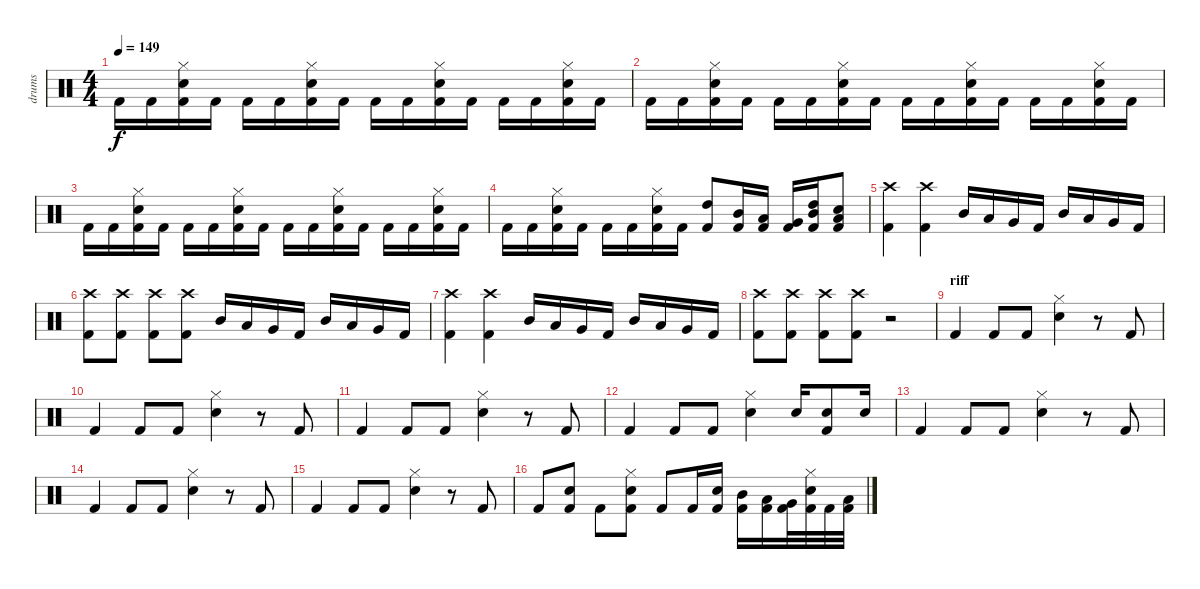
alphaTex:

\track ("drums" "drums") {instrument percussion}
\staff {score}
\articulation defaults
\ts (4 4)
\tempo 149
\clef neutral
\ks c "Kick (hit) 2".16{dy f} "Kick (hit) 2".16
("Kick (hit) 2" "Electric Snare (hit)" "Hi-Hat (closed)").16 "Kick (hit) 2".16 "Kick (hit) 2".16 "Kick (hit) 2".16 ("Kick (hit) 2" "Electric Snare (hit)" "Hi-Hat (closed)").16 "Kick (hit) 2".16 "Kick (hit) 2".16 "Kick (hit) 2".16 ("Kick (hit) 2" "Electric Snare (hit)" "Hi-Hat (closed)").16 "Kick (hit) 2".16 "Kick (hit) 2".16 "Kick (hit) 2".16 ("Kick (hit) 2" "Electric Snare (hit)" "Hi-Hat (closed)").16 "Kick (hit) 2".16 |
"Kick (hit) 2".16 "Kick (hit) 2".16 ("Kick (hit) 2" "Electric Snare (hit)" "Hi-Hat (closed)").16 "Kick (hit) 2".16 "Kick (hit) 2".16 "Kick (hit) 2".16 ("Kick (hit) 2" "Electric Snare (hit)" "Hi-Hat (closed)").16 "Kick (hit) 2".16 "Kick (hit) 2".16 "Kick (hit) 2".16 ("Kick (hit) 2" "Electric Snare (hit)" "Hi-Hat (closed)").16 "Kick (hit) 2".16 "Kick (hit) 2".16 "Kick (hit) 2".16 ("Kick (hit) 2" "Electric Snare (hit)" "Hi-Hat (closed)").16 "Kick (hit) 2".16 |
"Kick (hit) 2".16 "Kick (hit) 2".16 ("Kick (hit) 2" "Electric Snare (hit)" "Hi-Hat (closed)").16 "Kick (hit) 2".16 "Kick (hit) 2".16 "Kick (hit) 2".16 ("Kick (hit) 2" "Electric Snare (hit)" "Hi-Hat (closed)").16 "Kick (hit) 2".16 "Kick (hit) 2".16 "Kick (hit) 2".16 ("Kick (hit) 2" "Electric Snare (hit)" "Hi-Hat (closed)").16 "Kick (hit) 2".16 "Kick (hit) 2".16 "Kick (hit) 2".16 ("Kick (hit) 2" "Electric Snare (hit)" "Hi-Hat (closed)").16 "Kick (hit) 2".16 |
"Kick (hit) 2".16 "Kick (hit) 2".16 ("Kick (hit) 2" "Electric Snare (hit)" "Hi-Hat (closed)").16 "Kick (hit) 2".16 "Kick (hit) 2".16 "Kick (hit) 2".16 ("Kick (hit) 2" "Electric Snare (hit)" "Hi-Hat (closed)").16 "Kick (hit) 2".16 ("Kick (hit) 2" "High Tom (hit)").8 ("Kick (hit) 2" "Mid Tom (hit)").16 ("Kick (hit) 2" "Low Tom (hit)").16 ("Kick (hit) 2" "Very Low Tom (hit)").16 ("Kick (hit) 2" "Mid Tom (hit)" "High Tom (hit)").16 ("Kick (hit) 2" "Electric Snare (hit)" "Low Tom (hit)").8 |
("Kick (hit) 2" "Crash high (hit)").4 ("Kick (hit) 2" "Crash high (hit)").4 "Mid Tom (hit)".16 "Low Tom (hit)".16 "Very Low Tom (hit)".16 "Kick (hit) 2".16 "Mid Tom (hit)".16 "Low Tom (hit)".16 "Very Low Tom (hit)".16 "Kick (hit) 2".16 |
("Kick (hit) 2" "Crash high (hit)").8 ("Kick (hit) 2" "Crash high (hit)").8 ("Kick (hit) 2" "Crash high (hit)").8 ("Kick (hit) 2" "Crash high (hit)").8 "Mid Tom (hit)".16 "Low Tom (hit)".16 "Very Low Tom (hit)".16 "Kick (hit) 2".16 "Mid Tom (hit)".16 "Low Tom (hit)".16 "Very Low Tom (hit)".16 "Kick (hit) 2".16 |
("Kick (hit) 2" "Crash high (hit)").4 ("Kick (hit) 2" "Crash high (hit)").4 "Mid Tom (hit)".16 "Low Tom (hit)".16 "Very Low Tom (hit)".16 "Kick (hit) 2".16 "Mid Tom (hit)".16 "Low Tom (hit)".16 "Very Low Tom (hit)".16 "Kick (hit) 2".16 |
("Kick (hit) 2" "Crash high (hit)").8 ("Kick (hit) 2" "Crash high (hit)").8 ("Kick (hit) 2" "Crash high (hit)").8 ("Kick (hit) 2" "Crash high (hit)").8 r.2 |
\section ("" "riff")
"Kick (hit) 2".4 "Kick (hit) 2".8 "Kick (hit) 2".8 ("Electric Snare (hit)" "Hi-Hat (closed)").4 r.8 "Kick (hit) 2".8 |
"Kick (hit) 2".4 "Kick (hit) 2".8 "Kick (hit) 2".8 ("Electric Snare (hit)" "Hi-Hat (closed)").4 r.8 "Kick (hit) 2".8 |
"Kick (hit) 2".4 "Kick (hit) 2".8 "Kick (hit) 2".8 ("Electric Snare (hit)" "Hi-Hat (closed)").4 r.8 "Kick (hit) 2".8 |
"Kick (hit) 2".4 "Kick (hit) 2".8 "Kick (hit) 2".8 ("Electric Snare (hit)" "Hi-Hat (closed)").4 "Electric Snare (hit)".16 ("Kick (hit) 2" "Electric Snare (hit)").8 "Electric Snare (hit)".16 |
"Kick (hit) 2".4 "Kick (hit) 2".8 "Kick (hit) 2".8 ("Electric Snare (hit)" "Hi-Hat (closed)").4 r.8 "Kick (hit) 2".8 |
"Kick (hit) 2".4 "Kick (hit) 2".8 "Kick (hit) 2".8 ("Electric Snare (hit)" "Hi-Hat (closed)").4 r.8 "Kick (hit) 2".8 |
"Kick (hit) 2".4 "Kick (hit) 2".8 "Kick (hit) 2".8 ("Electric Snare (hit)" "Hi-Hat (closed)").4 r.8 "Kick (hit) 2".8 |
"Kick (hit) 2".8 ("Kick (hit) 2" "Electric Snare (hit)").8 "Kick (hit) 2".8 ("Kick (hit) 2" "Electric Snare (hit)" "Hi-Hat (closed)").8 "Kick (hit) 2".8 "Kick (hit) 2".16 ("Kick (hit) 2" "Electric Snare (hit)").16 ("Kick (hit) 2" "Mid Tom (hit)").16 ("Kick (hit) 2" "Low Tom (hit)").16 ("Kick (hit) 2" "Very Low Tom (hit)").32 ("Kick (hit) 2" "Electric Snare (hit)" "Hi-Hat (closed)").32 "Kick (hit) 2".32 ("Kick (hit) 2" "Low Tom (hit)").32
